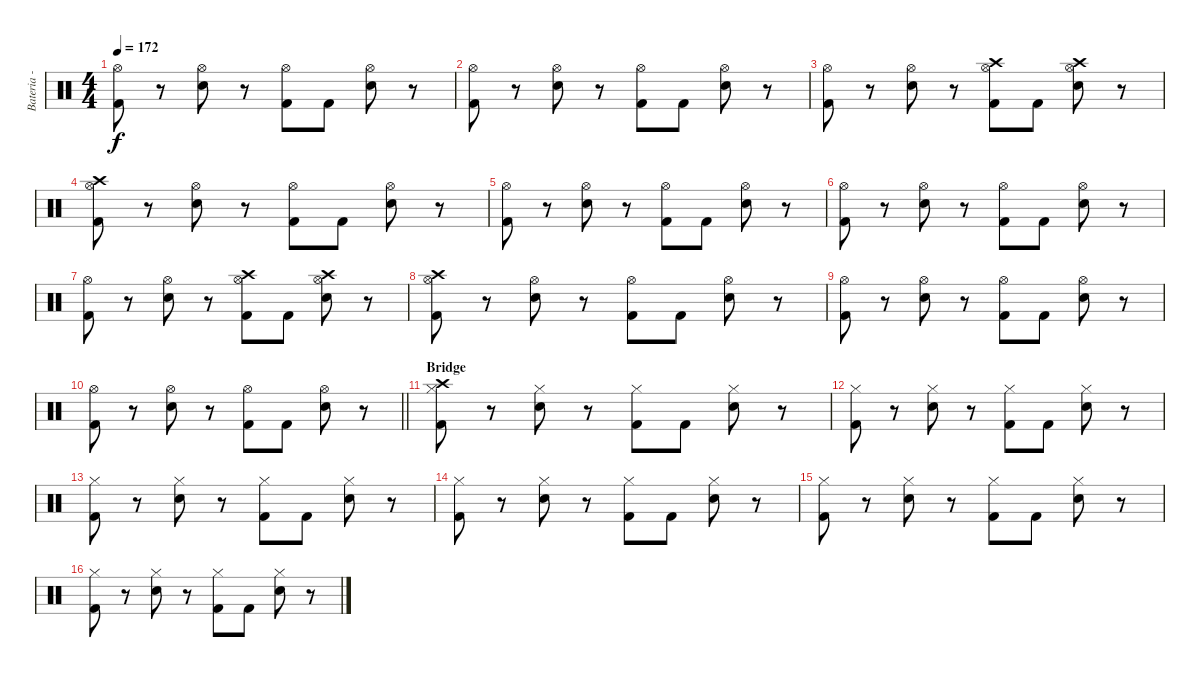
\track ("Bateria - Larzon" "Bateria - ") {instrument percussion}
\staff {score}
\articulation defaults
\ts (4 4)
\tempo 172
\clef neutral
\ks c
("Kick (hit) 2" "Hi-Hat (open)").8{dy f} r.8 ("Snare (hit) 2" "Hi-Hat (open)").8 r.8 ("Kick (hit) 2" "Hi-Hat (open)").8 "Kick (hit) 2".8 ("Snare (hit) 2" "Hi-Hat (open)").8 r.8 |
("Kick (hit) 2" "Hi-Hat (open)").8 r.8 ("Snare (hit) 2" "Hi-Hat (open)").8 r.8 ("Kick (hit) 2" "Hi-Hat (open)").8 "Kick (hit) 2".8 ("Snare (hit) 2" "Hi-Hat (open)").8 r.8 |
("Kick (hit) 2" "Hi-Hat (open)").8 r.8 ("Snare (hit) 2" "Hi-Hat (open)").8 r.8 ("Kick (hit) 2" "Hi-Hat (open)" "Crash high (hit)").8 "Kick (hit) 2".8 ("Snare (hit) 2" "Hi-Hat (open)" "Crash high (hit)").8 r.8 |
("Kick (hit) 2" "Hi-Hat (open)" "Crash high (hit)").8 r.8 ("Snare (hit) 2" "Hi-Hat (open)").8 r.8 ("Kick (hit) 2" "Hi-Hat (open)").8 "Kick (hit) 2".8 ("Snare (hit) 2" "Hi-Hat (open)").8 r.8 |
("Kick (hit) 2" "Hi-Hat (open)").8 r.8 ("Snare (hit) 2" "Hi-Hat (open)").8 r.8 ("Kick (hit) 2" "Hi-Hat (open)").8 "Kick (hit) 2".8 ("Snare (hit) 2" "Hi-Hat (open)").8 r.8 |
("Kick (hit) 2" "Hi-Hat (open)").8 r.8 ("Snare (hit) 2" "Hi-Hat (open)").8 r.8 ("Kick (hit) 2" "Hi-Hat (open)").8 "Kick (hit) 2".8 ("Snare (hit) 2" "Hi-Hat (open)").8 r.8 |
("Kick (hit) 2" "Hi-Hat (open)").8 r.8 ("Snare (hit) 2" "Hi-Hat (open)").8 r.8 ("Kick (hit) 2" "Hi-Hat (open)" "Crash high (hit)").8 "Kick (hit) 2".8 ("Snare (hit) 2" "Hi-Hat (open)" "Crash high (hit)").8 r.8 |
("Kick (hit) 2" "Hi-Hat (open)" "Crash high (hit)").8 r.8 ("Snare (hit) 2" "Hi-Hat (open)").8 r.8 ("Kick (hit) 2" "Hi-Hat (open)").8 "Kick (hit) 2".8 ("Snare (hit) 2" "Hi-Hat (open)").8 r.8 |
("Kick (hit) 2" "Hi-Hat (open)").8 r.8 ("Snare (hit) 2" "Hi-Hat (open)").8 r.8 ("Kick (hit) 2" "Hi-Hat (open)").8 "Kick (hit) 2".8 ("Snare (hit) 2" "Hi-Hat (open)").8 r.8 |
\barLineRight lightlight
("Kick (hit) 2" "Hi-Hat (open)").8 r.8 ("Snare (hit) 2" "Hi-Hat (open)").8 r.8 ("Kick (hit) 2" "Hi-Hat (open)").8 "Kick (hit) 2".8 ("Snare (hit) 2" "Hi-Hat (open)").8 r.8 |
\section ("" "Bridge")
("Kick (hit) 2" "Hi-Hat (closed)" "Crash high (hit)").8 r.8 ("Snare (hit) 2" "Hi-Hat (closed)").8 r.8 ("Kick (hit) 2" "Hi-Hat (closed)").8 "Kick (hit) 2".8 ("Snare (hit) 2" "Hi-Hat (closed)").8 r.8 |
("Kick (hit) 2" "Hi-Hat (closed)").8 r.8 ("Snare (hit) 2" "Hi-Hat (closed)").8 r.8 ("Kick (hit) 2" "Hi-Hat (closed)").8 "Kick (hit) 2".8 ("Snare (hit) 2" "Hi-Hat (closed)").8 r.8 |
("Kick (hit) 2" "Hi-Hat (closed)").8 r.8 ("Snare (hit) 2" "Hi-Hat (closed)").8 r.8 ("Kick (hit) 2" "Hi-Hat (closed)").8 "Kick (hit) 2".8 ("Snare (hit) 2" "Hi-Hat (closed)").8 r.8 |
("Kick (hit) 2" "Hi-Hat (closed)").8 r.8 ("Snare (hit) 2" "Hi-Hat (closed)").8 r.8 ("Kick (hit) 2" "Hi-Hat (closed)").8 "Kick (hit) 2".8 ("Snare (hit) 2" "Hi-Hat (closed)").8 r.8 |
("Kick (hit) 2" "Hi-Hat (closed)").8 r.8 ("Snare (hit) 2" "Hi-Hat (closed)").8 r.8 ("Kick (hit) 2" "Hi-Hat (closed)").8 "Kick (hit) 2".8 ("Snare (hit) 2" "Hi-Hat (closed)").8 r.8 |
("Kick (hit) 2" "Hi-Hat (closed)").8 r.8 ("Snare (hit) 2" "Hi-Hat (closed)").8 r.8 ("Kick (hit) 2" "Hi-Hat (closed)").8 "Kick (hit) 2".8 ("Snare (hit) 2" "Hi-Hat (closed)").8 r.8
